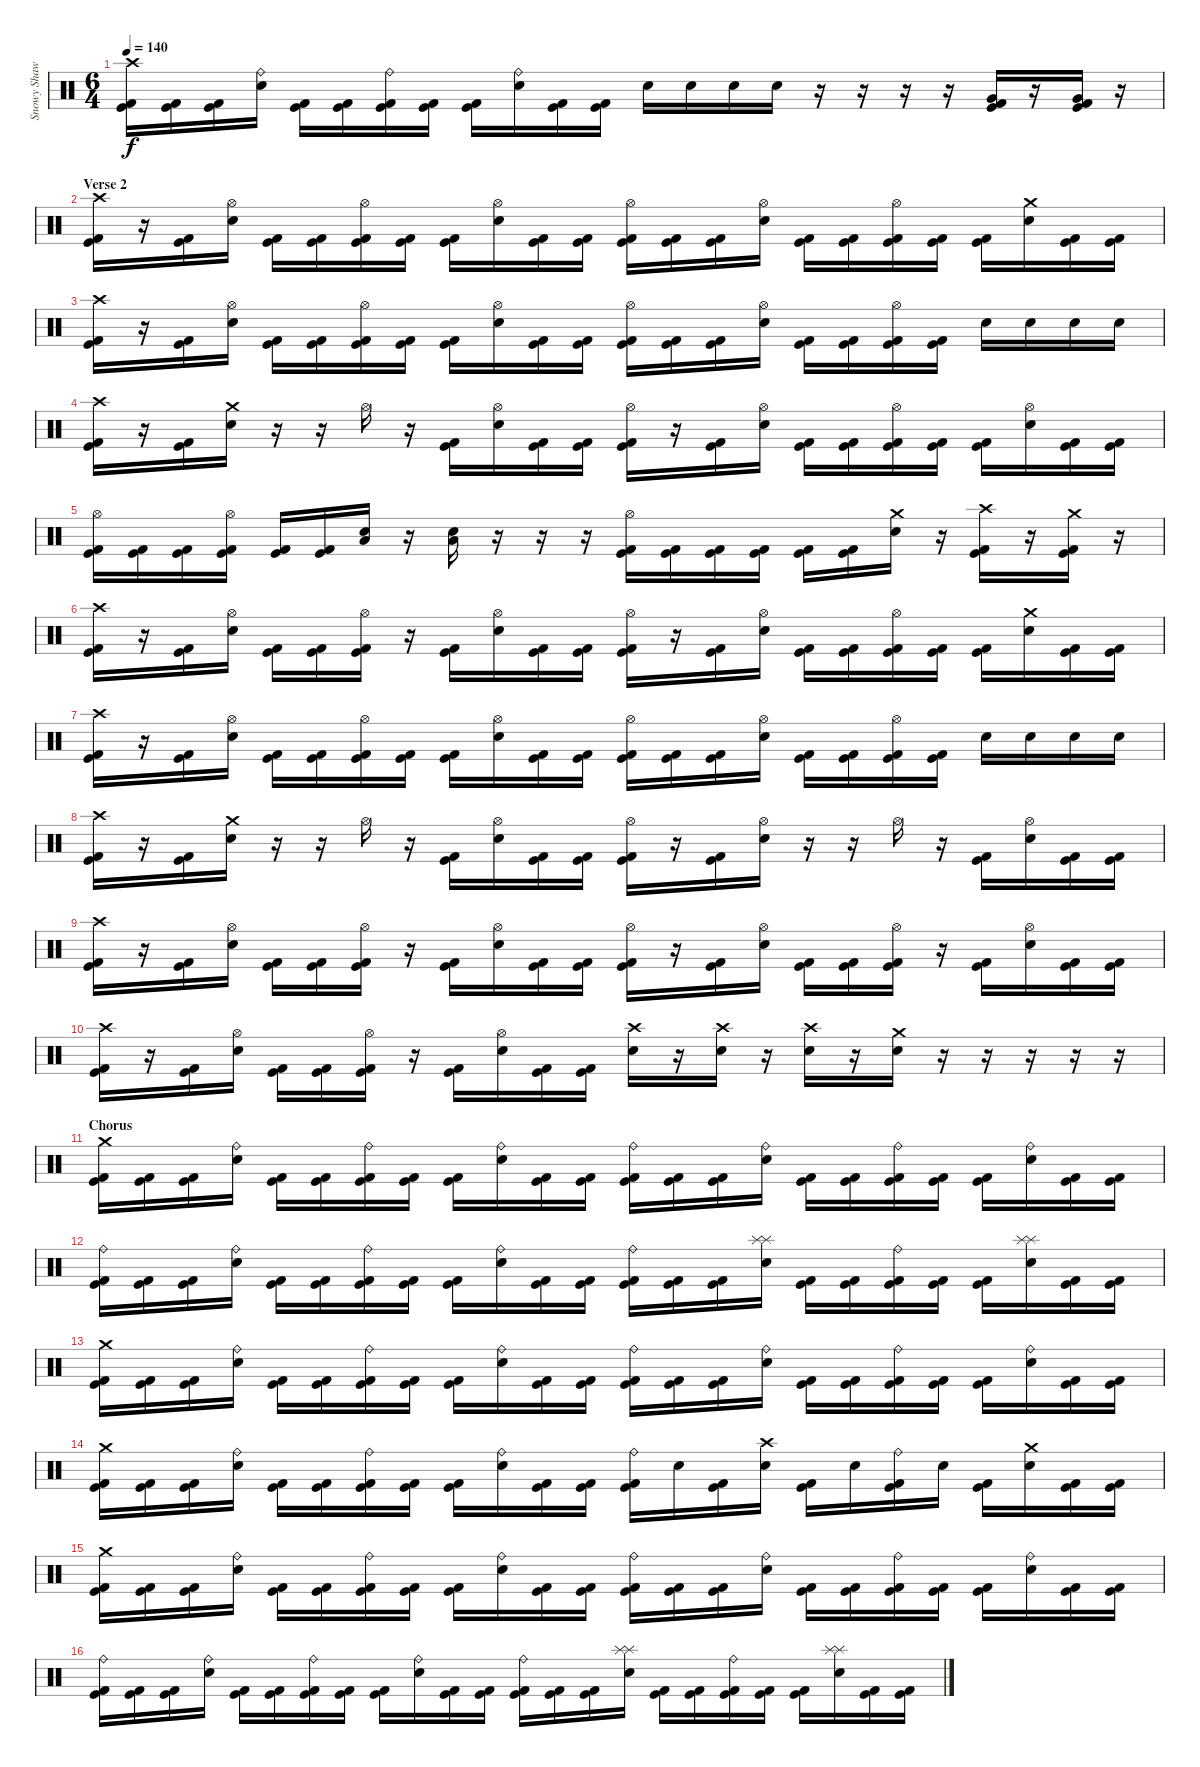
\track ("Snowy Shaw" "Snowy Shaw") {instrument percussion}
\staff {score}
\articulation defaults
\ts (6 4)
\tempo 140
\clef neutral
\ks c
("Crash high (hit)" "Kick (hit) 2" "Kick (hit)").16{dy f} ("Kick (hit) 2" "Kick (hit)").16 ("Kick (hit) 2" "Kick (hit)").16 ("Ride (bell)" "Electric Snare (hit)").16 ("Kick (hit)" "Kick (hit) 2").16 ("Kick (hit)" "Kick (hit) 2").16 ("Ride (bell)" "Kick (hit)" "Kick (hit) 2").16 ("Kick (hit)" "Kick (hit) 2").16 ("Kick (hit)" "Kick (hit) 2").16 ("Ride (bell)" "Electric Snare (hit)").16 ("Kick (hit)" "Kick (hit) 2").16 ("Kick (hit)" "Kick (hit) 2").16 "Electric Snare (hit)".16 "Electric Snare (hit)".16 "Electric Snare (hit)".16 "Electric Snare (hit)".16 r.16 r.16 r.16 r.16 ("Very Low Tom (hit)" "Kick (hit)" "Kick (hit) 2").16 r.16 ("Very Low Tom (hit)" "Kick (hit)" "Kick (hit) 2").16 r.16 |
\section ("" "Verse 2")
("Crash high (hit)" "Kick (hit) 2" "Kick (hit)").16 r.16 ("Kick (hit) 2" "Kick (hit)").16 ("Hi-Hat (open)" "Electric Snare (hit)").16 ("Kick (hit)" "Kick (hit) 2").16 ("Kick (hit)" "Kick (hit) 2").16 ("Hi-Hat (open)" "Kick (hit)" "Kick (hit) 2").16 ("Kick (hit) 2" "Kick (hit)").16 ("Kick (hit)" "Kick (hit) 2").16 ("Hi-Hat (open)" "Electric Snare (hit)").16 ("Kick (hit)" "Kick (hit) 2").16 ("Kick (hit)" "Kick (hit) 2").16 ("Hi-Hat (open)" "Kick (hit)" "Kick (hit) 2").16 ("Kick (hit) 2" "Kick (hit)").16 ("Kick (hit)" "Kick (hit) 2").16 ("Hi-Hat (open)" "Electric Snare (hit)").16 ("Kick (hit)" "Kick (hit) 2").16 ("Kick (hit)" "Kick (hit) 2").16 ("Hi-Hat (open)" "Kick (hit)" "Kick (hit) 2").16 ("Kick (hit)" "Kick (hit) 2").16 ("Kick (hit)" "Kick (hit) 2").16 ("Crash medium (hit)" "Electric Snare (hit)").16 ("Kick (hit)" "Kick (hit) 2").16 ("Kick (hit)" "Kick (hit) 2").16 |
("Crash high (hit)" "Kick (hit) 2" "Kick (hit)").16 r.16 ("Kick (hit) 2" "Kick (hit)").16 ("Hi-Hat (open)" "Electric Snare (hit)").16 ("Kick (hit)" "Kick (hit) 2").16 ("Kick (hit)" "Kick (hit) 2").16 ("Hi-Hat (open)" "Kick (hit)" "Kick (hit) 2").16 ("Kick (hit) 2" "Kick (hit)").16 ("Kick (hit)" "Kick (hit) 2").16 ("Hi-Hat (open)" "Electric Snare (hit)").16 ("Kick (hit)" "Kick (hit) 2").16 ("Kick (hit)" "Kick (hit) 2").16 ("Hi-Hat (open)" "Kick (hit)" "Kick (hit) 2").16 ("Kick (hit) 2" "Kick (hit)").16 ("Kick (hit)" "Kick (hit) 2").16 ("Hi-Hat (open)" "Electric Snare (hit)").16 ("Kick (hit)" "Kick (hit) 2").16 ("Kick (hit)" "Kick (hit) 2").16 ("Hi-Hat (open)" "Kick (hit)" "Kick (hit) 2").16 ("Kick (hit) 2" "Kick (hit)").16 "Electric Snare (hit)".16 "Electric Snare (hit)".16 "Electric Snare (hit)".16 "Electric Snare (hit)".16 |
("Crash high (hit)" "Kick (hit) 2" "Kick (hit)").16 r.16 ("Kick (hit) 2" "Kick (hit)").16 ("Crash medium (hit)" "Electric Snare (hit)").16 r.16 r.16 "Hi-Hat (open)".16 r.16 ("Kick (hit)" "Kick (hit) 2").16 ("Hi-Hat (open)" "Electric Snare (hit)").16 ("Kick (hit)" "Kick (hit) 2").16 ("Kick (hit)" "Kick (hit) 2").16 ("Hi-Hat (open)" "Kick (hit)" "Kick (hit) 2").16 r.16 ("Kick (hit)" "Kick (hit) 2").16 ("Hi-Hat (open)" "Electric Snare (hit)").16 ("Kick (hit)" "Kick (hit) 2").16 ("Kick (hit)" "Kick (hit) 2").16 ("Hi-Hat (open)" "Kick (hit)" "Kick (hit) 2").16 ("Kick (hit)" "Kick (hit) 2").16 ("Kick (hit)" "Kick (hit) 2").16 ("Hi-Hat (open)" "Electric Snare (hit)").16 ("Kick (hit)" "Kick (hit) 2").16 ("Kick (hit)" "Kick (hit) 2").16 |
("Hi-Hat (open)" "Kick (hit)" "Kick (hit) 2").16 ("Kick (hit)" "Kick (hit) 2").16 ("Kick (hit)" "Kick (hit) 2").16 ("Hi-Hat (open)" "Kick (hit)" "Kick (hit) 2").16 ("Kick (hit)" "Kick (hit) 2").16 ("Kick (hit)" "Kick (hit) 2").16 ("Low Tom (hit)" "Electric Snare (hit)").16 r.16 ("Low Tom (hit)" "Electric Snare (hit)").16 r.16 r.16 r.16 ("Hi-Hat (open)" "Kick (hit)" "Kick (hit) 2").16 ("Kick (hit)" "Kick (hit) 2").16 ("Kick (hit)" "Kick (hit) 2").16 ("Kick (hit)" "Kick (hit) 2").16 ("Kick (hit)" "Kick (hit) 2").16 ("Kick (hit)" "Kick (hit) 2").16 ("Crash medium (hit)" "Electric Snare (hit)").16 r.16 ("Crash high (hit)" "Kick (hit) 2" "Kick (hit)").16 r.16 ("Crash medium (hit)" "Kick (hit) 2" "Kick (hit)").16 r.16 |
("Crash high (hit)" "Kick (hit) 2" "Kick (hit)").16 r.16 ("Kick (hit) 2" "Kick (hit)").16 ("Hi-Hat (open)" "Electric Snare (hit)").16 ("Kick (hit)" "Kick (hit) 2").16 ("Kick (hit)" "Kick (hit) 2").16 ("Hi-Hat (open)" "Kick (hit)" "Kick (hit) 2").16 r.16 ("Kick (hit)" "Kick (hit) 2").16 ("Hi-Hat (open)" "Electric Snare (hit)").16 ("Kick (hit)" "Kick (hit) 2").16 ("Kick (hit)" "Kick (hit) 2").16 ("Hi-Hat (open)" "Kick (hit) 2" "Kick (hit)").16 r.16 ("Kick (hit)" "Kick (hit) 2").16 ("Hi-Hat (open)" "Electric Snare (hit)").16 ("Kick (hit)" "Kick (hit) 2").16 ("Kick (hit)" "Kick (hit) 2").16 ("Hi-Hat (open)" "Kick (hit)" "Kick (hit) 2").16 ("Kick (hit)" "Kick (hit) 2").16 ("Kick (hit)" "Kick (hit) 2").16 ("Crash medium (hit)" "Electric Snare (hit)").16 ("Kick (hit)" "Kick (hit) 2").16 ("Kick (hit)" "Kick (hit) 2").16 |
("Crash high (hit)" "Kick (hit) 2" "Kick (hit)").16 r.16 ("Kick (hit) 2" "Kick (hit)").16 ("Hi-Hat (open)" "Electric Snare (hit)").16 ("Kick (hit)" "Kick (hit) 2").16 ("Kick (hit)" "Kick (hit) 2").16 ("Hi-Hat (open)" "Kick (hit)" "Kick (hit) 2").16 ("Kick (hit) 2" "Kick (hit)").16 ("Kick (hit)" "Kick (hit) 2").16 ("Hi-Hat (open)" "Electric Snare (hit)").16 ("Kick (hit)" "Kick (hit) 2").16 ("Kick (hit)" "Kick (hit) 2").16 ("Hi-Hat (open)" "Kick (hit)" "Kick (hit) 2").16 ("Kick (hit) 2" "Kick (hit)").16 ("Kick (hit)" "Kick (hit) 2").16 ("Hi-Hat (open)" "Electric Snare (hit)").16 ("Kick (hit)" "Kick (hit) 2").16 ("Kick (hit)" "Kick (hit) 2").16 ("Hi-Hat (open)" "Kick (hit)" "Kick (hit) 2").16 ("Kick (hit) 2" "Kick (hit)").16 "Electric Snare (hit)".16 "Electric Snare (hit)".16 "Electric Snare (hit)".16 "Electric Snare (hit)".16 |
("Crash high (hit)" "Kick (hit) 2" "Kick (hit)").16 r.16 ("Kick (hit) 2" "Kick (hit)").16 ("Crash medium (hit)" "Electric Snare (hit)").16 r.16 r.16 "Hi-Hat (open)".16 r.16 ("Kick (hit)" "Kick (hit) 2").16 ("Hi-Hat (open)" "Electric Snare (hit)").16 ("Kick (hit)" "Kick (hit) 2").16 ("Kick (hit)" "Kick (hit) 2").16 ("Hi-Hat (open)" "Kick (hit)" "Kick (hit) 2").16 r.16 ("Kick (hit)" "Kick (hit) 2").16 ("Hi-Hat (open)" "Electric Snare (hit)").16 r.16 r.16 "Hi-Hat (open)".16 r.16 ("Kick (hit)" "Kick (hit) 2").16 ("Hi-Hat (open)" "Electric Snare (hit)").16 ("Kick (hit)" "Kick (hit) 2").16 ("Kick (hit)" "Kick (hit) 2").16 |
("Crash high (hit)" "Kick (hit) 2" "Kick (hit)").16 r.16 ("Kick (hit) 2" "Kick (hit)").16 ("Hi-Hat (open)" "Electric Snare (hit)").16 ("Kick (hit) 2" "Kick (hit)").16 ("Kick (hit) 2" "Kick (hit)").16 ("Hi-Hat (open)" "Kick (hit) 2" "Kick (hit)").16 r.16 ("Kick (hit)" "Kick (hit) 2").16 ("Hi-Hat (open)" "Electric Snare (hit)").16 ("Kick (hit)" "Kick (hit) 2").16 ("Kick (hit)" "Kick (hit) 2").16 ("Hi-Hat (open)" "Kick (hit)" "Kick (hit) 2").16 r.16 ("Kick (hit)" "Kick (hit) 2").16 ("Hi-Hat (open)" "Electric Snare (hit)").16 ("Kick (hit) 2" "Kick (hit)").16 ("Kick (hit) 2" "Kick (hit)").16 ("Hi-Hat (open)" "Kick (hit) 2" "Kick (hit)").16 r.16 ("Kick (hit)" "Kick (hit) 2").16 ("Hi-Hat (open)" "Electric Snare (hit)").16 ("Kick (hit)" "Kick (hit) 2").16 ("Kick (hit)" "Kick (hit) 2").16 |
("Crash high (hit)" "Kick (hit) 2" "Kick (hit)").16 r.16 ("Kick (hit) 2" "Kick (hit)").16 ("Hi-Hat (open)" "Electric Snare (hit)").16 ("Kick (hit) 2" "Kick (hit)").16 ("Kick (hit) 2" "Kick (hit)").16 ("Hi-Hat (open)" "Kick (hit) 2" "Kick (hit)").16 r.16 ("Kick (hit)" "Kick (hit) 2").16 ("Hi-Hat (open)" "Electric Snare (hit)").16 ("Kick (hit)" "Kick (hit) 2").16 ("Kick (hit)" "Kick (hit) 2").16 ("Crash high (hit)" "Electric Snare (hit)").16 r.16 ("Crash high (hit)" "Electric Snare (hit)").16 r.16 ("Crash high (hit)" "Electric Snare (hit)").16 r.16 ("Crash medium (hit)" "Electric Snare (hit)").16 r.16 r.16 r.16 r.16 r.16 |
\section ("" "Chorus")
("Crash medium (hit)" "Kick (hit) 2" "Kick (hit)").16 ("Kick (hit) 2" "Kick (hit)").16 ("Kick (hit) 2" "Kick (hit)").16 ("Ride (bell)" "Electric Snare (hit)").16 ("Kick (hit) 2" "Kick (hit)").16 ("Kick (hit) 2" "Kick (hit)").16 ("Ride (bell)" "Kick (hit) 2" "Kick (hit)").16 ("Kick (hit) 2" "Kick (hit)").16 ("Kick (hit)" "Kick (hit) 2").16 ("Ride (bell)" "Electric Snare (hit)").16 ("Kick (hit)" "Kick (hit) 2").16 ("Kick (hit)" "Kick (hit) 2").16 ("Ride (bell)" "Kick (hit)" "Kick (hit) 2").16 ("Kick (hit) 2" "Kick (hit)").16 ("Kick (hit)" "Kick (hit) 2").16 ("Ride (bell)" "Electric Snare (hit)").16 ("Kick (hit) 2" "Kick (hit)").16 ("Kick (hit) 2" "Kick (hit)").16 ("Ride (bell)" "Kick (hit) 2" "Kick (hit)").16 ("Kick (hit) 2" "Kick (hit)").16 ("Kick (hit)" "Kick (hit) 2").16 ("Ride (bell)" "Electric Snare (hit)").16 ("Kick (hit)" "Kick (hit) 2").16 ("Kick (hit)" "Kick (hit) 2").16 |
("Ride (bell)" "Kick (hit) 2" "Kick (hit)").16 ("Kick (hit) 2" "Kick (hit)").16 ("Kick (hit) 2" "Kick (hit)").16 ("Ride (bell)" "Electric Snare (hit)").16 ("Kick (hit) 2" "Kick (hit)").16 ("Kick (hit) 2" "Kick (hit)").16 ("Ride (bell)" "Kick (hit) 2" "Kick (hit)").16 ("Kick (hit) 2" "Kick (hit)").16 ("Kick (hit)" "Kick (hit) 2").16 ("Ride (bell)" "Electric Snare (hit)").16 ("Kick (hit)" "Kick (hit) 2").16 ("Kick (hit)" "Kick (hit) 2").16 ("Ride (bell)" "Kick (hit)" "Kick (hit) 2").16 ("Kick (hit) 2" "Kick (hit)").16 ("Kick (hit)" "Kick (hit) 2").16 ("Splash (hit)" "Splash (hit)" "Electric Snare (hit)").16 ("Kick (hit) 2" "Kick (hit)").16 ("Kick (hit) 2" "Kick (hit)").16 ("Ride (bell)" "Kick (hit) 2" "Kick (hit)").16 ("Kick (hit) 2" "Kick (hit)").16 ("Kick (hit)" "Kick (hit) 2").16 ("Splash (hit)" "Splash (hit)" "Electric Snare (hit)").16 ("Kick (hit)" "Kick (hit) 2").16 ("Kick (hit)" "Kick (hit) 2").16 |
("Crash medium (hit)" "Kick (hit) 2" "Kick (hit)").16 ("Kick (hit) 2" "Kick (hit)").16 ("Kick (hit) 2" "Kick (hit)").16 ("Ride (bell)" "Electric Snare (hit)").16 ("Kick (hit) 2" "Kick (hit)").16 ("Kick (hit) 2" "Kick (hit)").16 ("Ride (bell)" "Kick (hit) 2" "Kick (hit)").16 ("Kick (hit) 2" "Kick (hit)").16 ("Kick (hit)" "Kick (hit) 2").16 ("Ride (bell)" "Electric Snare (hit)").16 ("Kick (hit)" "Kick (hit) 2").16 ("Kick (hit)" "Kick (hit) 2").16 ("Ride (bell)" "Kick (hit)" "Kick (hit) 2").16 ("Kick (hit) 2" "Kick (hit)").16 ("Kick (hit)" "Kick (hit) 2").16 ("Ride (bell)" "Electric Snare (hit)").16 ("Kick (hit) 2" "Kick (hit)").16 ("Kick (hit) 2" "Kick (hit)").16 ("Ride (bell)" "Kick (hit) 2" "Kick (hit)").16 ("Kick (hit) 2" "Kick (hit)").16 ("Kick (hit)" "Kick (hit) 2").16 ("Ride (bell)" "Electric Snare (hit)").16 ("Kick (hit)" "Kick (hit) 2").16 ("Kick (hit)" "Kick (hit) 2").16 |
("Crash medium (hit)" "Kick (hit) 2" "Kick (hit)").16 ("Kick (hit) 2" "Kick (hit)").16 ("Kick (hit) 2" "Kick (hit)").16 ("Ride (bell)" "Electric Snare (hit)").16 ("Kick (hit) 2" "Kick (hit)").16 ("Kick (hit) 2" "Kick (hit)").16 ("Ride (bell)" "Kick (hit) 2" "Kick (hit)").16 ("Kick (hit) 2" "Kick (hit)").16 ("Kick (hit)" "Kick (hit) 2").16 ("Ride (bell)" "Electric Snare (hit)").16 ("Kick (hit)" "Kick (hit) 2").16 ("Kick (hit)" "Kick (hit) 2").16 ("Ride (bell)" "Kick (hit)" "Kick (hit) 2").16 "Electric Snare (hit)".16 ("Kick (hit)" "Kick (hit) 2").16 ("Crash high (hit)" "Electric Snare (hit)").16 ("Kick (hit) 2" "Kick (hit)").16 "Electric Snare (hit)".16 ("Ride (bell)" "Kick (hit) 2" "Kick (hit)").16 "Electric Snare (hit)".16 ("Kick (hit)" "Kick (hit) 2").16 ("Crash medium (hit)" "Electric Snare (hit)").16 ("Kick (hit)" "Kick (hit) 2").16 ("Kick (hit)" "Kick (hit) 2").16 |
("Crash medium (hit)" "Kick (hit) 2" "Kick (hit)").16 ("Kick (hit) 2" "Kick (hit)").16 ("Kick (hit) 2" "Kick (hit)").16 ("Ride (bell)" "Electric Snare (hit)").16 ("Kick (hit) 2" "Kick (hit)").16 ("Kick (hit) 2" "Kick (hit)").16 ("Ride (bell)" "Kick (hit) 2" "Kick (hit)").16 ("Kick (hit) 2" "Kick (hit)").16 ("Kick (hit)" "Kick (hit) 2").16 ("Ride (bell)" "Electric Snare (hit)").16 ("Kick (hit)" "Kick (hit) 2").16 ("Kick (hit)" "Kick (hit) 2").16 ("Ride (bell)" "Kick (hit)" "Kick (hit) 2").16 ("Kick (hit) 2" "Kick (hit)").16 ("Kick (hit)" "Kick (hit) 2").16 ("Ride (bell)" "Electric Snare (hit)").16 ("Kick (hit) 2" "Kick (hit)").16 ("Kick (hit) 2" "Kick (hit)").16 ("Ride (bell)" "Kick (hit) 2" "Kick (hit)").16 ("Kick (hit) 2" "Kick (hit)").16 ("Kick (hit)" "Kick (hit) 2").16 ("Ride (bell)" "Electric Snare (hit)").16 ("Kick (hit)" "Kick (hit) 2").16 ("Kick (hit)" "Kick (hit) 2").16 |
("Ride (bell)" "Kick (hit) 2" "Kick (hit)").16 ("Kick (hit) 2" "Kick (hit)").16 ("Kick (hit) 2" "Kick (hit)").16 ("Ride (bell)" "Electric Snare (hit)").16 ("Kick (hit) 2" "Kick (hit)").16 ("Kick (hit) 2" "Kick (hit)").16 ("Ride (bell)" "Kick (hit) 2" "Kick (hit)").16 ("Kick (hit) 2" "Kick (hit)").16 ("Kick (hit)" "Kick (hit) 2").16 ("Ride (bell)" "Electric Snare (hit)").16 ("Kick (hit)" "Kick (hit) 2").16 ("Kick (hit)" "Kick (hit) 2").16 ("Ride (bell)" "Kick (hit)" "Kick (hit) 2").16 ("Kick (hit) 2" "Kick (hit)").16 ("Kick (hit)" "Kick (hit) 2").16 ("Splash (hit)" "Splash (hit)" "Electric Snare (hit)").16 ("Kick (hit) 2" "Kick (hit)").16 ("Kick (hit) 2" "Kick (hit)").16 ("Ride (bell)" "Kick (hit) 2" "Kick (hit)").16 ("Kick (hit) 2" "Kick (hit)").16 ("Kick (hit)" "Kick (hit) 2").16 ("Splash (hit)" "Splash (hit)" "Electric Snare (hit)").16 ("Kick (hit)" "Kick (hit) 2").16 ("Kick (hit)" "Kick (hit) 2").16
